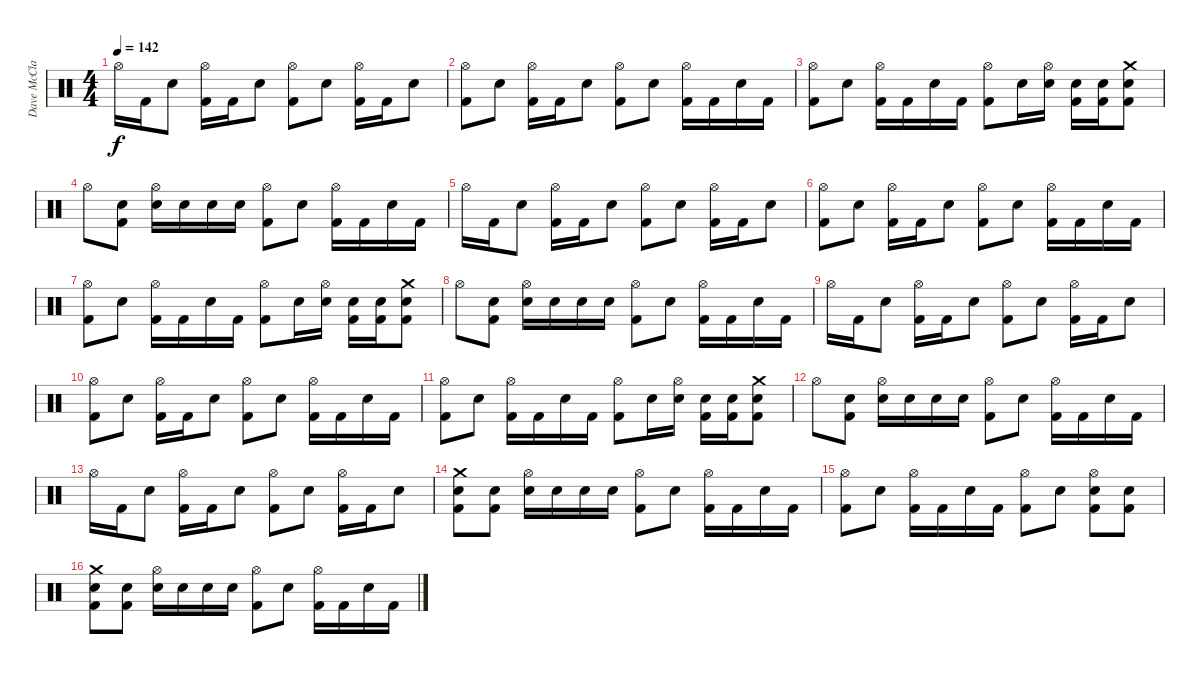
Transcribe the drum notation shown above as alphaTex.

\track ("Dave McClain" "Dave McCla") {instrument percussion}
\staff {score}
\articulation defaults
\ts (4 4)
\tempo 142
\clef neutral
\ks c "Hi-Hat (open)".16{dy f} "Kick (hit) 2".16 "Electric Snare (hit)".8
("Hi-Hat (open)" "Kick (hit) 2").16 "Kick (hit) 2".16 "Electric Snare (hit)".8 ("Hi-Hat (open)" "Kick (hit) 2").8 "Electric Snare (hit)".8 ("Hi-Hat (open)" "Kick (hit) 2").16 "Kick (hit) 2".16 "Electric Snare (hit)".8 |
("Hi-Hat (open)" "Kick (hit) 2").8 "Electric Snare (hit)".8 ("Hi-Hat (open)" "Kick (hit) 2").16 "Kick (hit) 2".16 "Electric Snare (hit)".8 ("Hi-Hat (open)" "Kick (hit) 2").8 "Electric Snare (hit)".8 ("Hi-Hat (open)" "Kick (hit) 2").16 "Kick (hit) 2".16 "Electric Snare (hit)".16 "Kick (hit) 2".16 |
("Hi-Hat (open)" "Kick (hit) 2").8 "Electric Snare (hit)".8 ("Hi-Hat (open)" "Kick (hit) 2").16 "Kick (hit) 2".16 "Electric Snare (hit)".16 "Kick (hit) 2".16 ("Hi-Hat (open)" "Kick (hit) 2").8 "Electric Snare (hit)".16 ("Hi-Hat (open)" "Electric Snare (hit)").16 ("Electric Snare (hit)" "Kick (hit) 2").16 ("Electric Snare (hit)" "Kick (hit) 2").16 ("Crash medium (hit)" "Electric Snare (hit)" "Kick (hit) 2").8 |
"Hi-Hat (open)".8 ("Electric Snare (hit)" "Kick (hit) 2").8 ("Hi-Hat (open)" "Electric Snare (hit)").16 "Electric Snare (hit)".16 "Electric Snare (hit)".16 "Electric Snare (hit)".16 ("Hi-Hat (open)" "Kick (hit) 2").8 "Electric Snare (hit)".8 ("Hi-Hat (open)" "Kick (hit) 2").16 "Kick (hit) 2".16 "Electric Snare (hit)".16 "Kick (hit) 2".16 |
"Hi-Hat (open)".16 "Kick (hit) 2".16 "Electric Snare (hit)".8 ("Hi-Hat (open)" "Kick (hit) 2").16 "Kick (hit) 2".16 "Electric Snare (hit)".8 ("Hi-Hat (open)" "Kick (hit) 2").8 "Electric Snare (hit)".8 ("Hi-Hat (open)" "Kick (hit) 2").16 "Kick (hit) 2".16 "Electric Snare (hit)".8 |
("Hi-Hat (open)" "Kick (hit) 2").8 "Electric Snare (hit)".8 ("Hi-Hat (open)" "Kick (hit) 2").16 "Kick (hit) 2".16 "Electric Snare (hit)".8 ("Hi-Hat (open)" "Kick (hit) 2").8 "Electric Snare (hit)".8 ("Hi-Hat (open)" "Kick (hit) 2").16 "Kick (hit) 2".16 "Electric Snare (hit)".16 "Kick (hit) 2".16 |
("Hi-Hat (open)" "Kick (hit) 2").8 "Electric Snare (hit)".8 ("Hi-Hat (open)" "Kick (hit) 2").16 "Kick (hit) 2".16 "Electric Snare (hit)".16 "Kick (hit) 2".16 ("Hi-Hat (open)" "Kick (hit) 2").8 "Electric Snare (hit)".16 ("Hi-Hat (open)" "Electric Snare (hit)").16 ("Electric Snare (hit)" "Kick (hit) 2").16 ("Electric Snare (hit)" "Kick (hit) 2").16 ("Crash medium (hit)" "Electric Snare (hit)" "Kick (hit) 2").8 |
"Hi-Hat (open)".8 ("Electric Snare (hit)" "Kick (hit) 2").8 ("Hi-Hat (open)" "Electric Snare (hit)").16 "Electric Snare (hit)".16 "Electric Snare (hit)".16 "Electric Snare (hit)".16 ("Hi-Hat (open)" "Kick (hit) 2").8 "Electric Snare (hit)".8 ("Hi-Hat (open)" "Kick (hit) 2").16 "Kick (hit) 2".16 "Electric Snare (hit)".16 "Kick (hit) 2".16 |
"Hi-Hat (open)".16 "Kick (hit) 2".16 "Electric Snare (hit)".8 ("Hi-Hat (open)" "Kick (hit) 2").16 "Kick (hit) 2".16 "Electric Snare (hit)".8 ("Hi-Hat (open)" "Kick (hit) 2").8 "Electric Snare (hit)".8 ("Hi-Hat (open)" "Kick (hit) 2").16 "Kick (hit) 2".16 "Electric Snare (hit)".8 |
("Hi-Hat (open)" "Kick (hit) 2").8 "Electric Snare (hit)".8 ("Hi-Hat (open)" "Kick (hit) 2").16 "Kick (hit) 2".16 "Electric Snare (hit)".8 ("Hi-Hat (open)" "Kick (hit) 2").8 "Electric Snare (hit)".8 ("Hi-Hat (open)" "Kick (hit) 2").16 "Kick (hit) 2".16 "Electric Snare (hit)".16 "Kick (hit) 2".16 |
("Hi-Hat (open)" "Kick (hit) 2").8 "Electric Snare (hit)".8 ("Hi-Hat (open)" "Kick (hit) 2").16 "Kick (hit) 2".16 "Electric Snare (hit)".16 "Kick (hit) 2".16 ("Hi-Hat (open)" "Kick (hit) 2").8 "Electric Snare (hit)".16 ("Hi-Hat (open)" "Electric Snare (hit)").16 ("Electric Snare (hit)" "Kick (hit) 2").16 ("Electric Snare (hit)" "Kick (hit) 2").16 ("Crash medium (hit)" "Electric Snare (hit)" "Kick (hit) 2").8 |
"Hi-Hat (open)".8 ("Electric Snare (hit)" "Kick (hit) 2").8 ("Hi-Hat (open)" "Electric Snare (hit)").16 "Electric Snare (hit)".16 "Electric Snare (hit)".16 "Electric Snare (hit)".16 ("Hi-Hat (open)" "Kick (hit) 2").8 "Electric Snare (hit)".8 ("Hi-Hat (open)" "Kick (hit) 2").16 "Kick (hit) 2".16 "Electric Snare (hit)".16 "Kick (hit) 2".16 |
"Hi-Hat (open)".16 "Kick (hit) 2".16 "Electric Snare (hit)".8 ("Hi-Hat (open)" "Kick (hit) 2").16 "Kick (hit) 2".16 "Electric Snare (hit)".8 ("Hi-Hat (open)" "Kick (hit) 2").8 "Electric Snare (hit)".8 ("Hi-Hat (open)" "Kick (hit) 2").16 "Kick (hit) 2".16 "Electric Snare (hit)".8 |
("Crash medium (hit)" "Electric Snare (hit)" "Kick (hit) 2").8 ("Electric Snare (hit)" "Kick (hit) 2").8 ("Hi-Hat (open)" "Electric Snare (hit)").16 "Electric Snare (hit)".16 "Electric Snare (hit)".16 "Electric Snare (hit)".16 ("Hi-Hat (open)" "Kick (hit) 2").8 "Electric Snare (hit)".8 ("Hi-Hat (open)" "Kick (hit) 2").16 "Kick (hit) 2".16 "Electric Snare (hit)".16 "Kick (hit) 2".16 |
("Hi-Hat (open)" "Kick (hit) 2").8 "Electric Snare (hit)".8 ("Hi-Hat (open)" "Kick (hit) 2").16 "Kick (hit) 2".16 "Electric Snare (hit)".16 "Kick (hit) 2".16 ("Hi-Hat (open)" "Kick (hit) 2").8 "Electric Snare (hit)".8 ("Hi-Hat (open)" "Electric Snare (hit)" "Kick (hit) 2").8 ("Electric Snare (hit)" "Kick (hit) 2").8 |
("Crash medium (hit)" "Electric Snare (hit)" "Kick (hit) 2").8 ("Electric Snare (hit)" "Kick (hit) 2").8 ("Hi-Hat (open)" "Electric Snare (hit)").16 "Electric Snare (hit)".16 "Electric Snare (hit)".16 "Electric Snare (hit)".16 ("Hi-Hat (open)" "Kick (hit) 2").8 "Electric Snare (hit)".8 ("Hi-Hat (open)" "Kick (hit) 2").16 "Kick (hit) 2".16 "Electric Snare (hit)".16 "Kick (hit) 2".16
